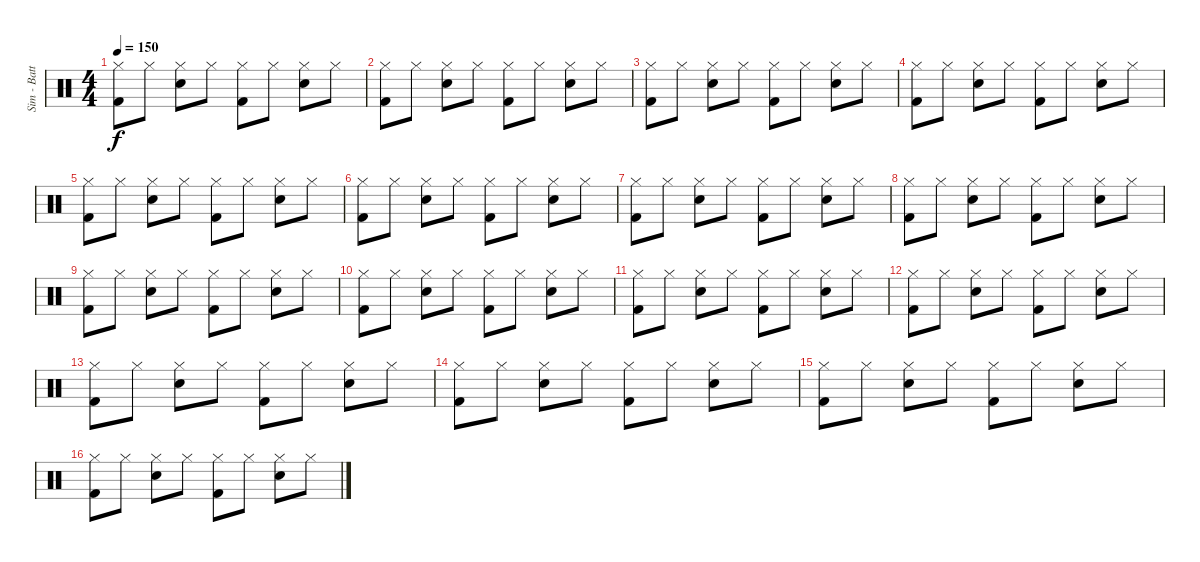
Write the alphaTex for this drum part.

\track ("Sim - Batterie-" "Sim - Batt") {instrument percussion}
\staff {score}
\articulation defaults
\ts (4 4)
\tempo 150
\clef neutral
\ks c
("Hi-Hat (closed)" "Kick (hit) 2").8{dy f} "Hi-Hat (closed)".8 ("Hi-Hat (closed)" "Snare (hit) 2").8 "Hi-Hat (closed)".8 ("Hi-Hat (closed)" "Kick (hit) 2").8 "Hi-Hat (closed)".8 ("Hi-Hat (closed)" "Snare (hit) 2").8 "Hi-Hat (closed)".8 |
("Hi-Hat (closed)" "Kick (hit) 2").8 "Hi-Hat (closed)".8 ("Hi-Hat (closed)" "Snare (hit) 2").8 "Hi-Hat (closed)".8 ("Hi-Hat (closed)" "Kick (hit) 2").8 "Hi-Hat (closed)".8 ("Hi-Hat (closed)" "Snare (hit) 2").8 "Hi-Hat (closed)".8 |
("Hi-Hat (closed)" "Kick (hit) 2").8 "Hi-Hat (closed)".8 ("Hi-Hat (closed)" "Snare (hit) 2").8 "Hi-Hat (closed)".8 ("Hi-Hat (closed)" "Kick (hit) 2").8 "Hi-Hat (closed)".8 ("Hi-Hat (closed)" "Snare (hit) 2").8 "Hi-Hat (closed)".8 |
("Hi-Hat (closed)" "Kick (hit) 2").8 "Hi-Hat (closed)".8 ("Hi-Hat (closed)" "Snare (hit) 2").8 "Hi-Hat (closed)".8 ("Hi-Hat (closed)" "Kick (hit) 2").8 "Hi-Hat (closed)".8 ("Hi-Hat (closed)" "Snare (hit) 2").8 "Hi-Hat (closed)".8 |
("Hi-Hat (closed)" "Kick (hit) 2").8 "Hi-Hat (closed)".8 ("Hi-Hat (closed)" "Snare (hit) 2").8 "Hi-Hat (closed)".8 ("Hi-Hat (closed)" "Kick (hit) 2").8 "Hi-Hat (closed)".8 ("Hi-Hat (closed)" "Snare (hit) 2").8 "Hi-Hat (closed)".8 |
("Hi-Hat (closed)" "Kick (hit) 2").8 "Hi-Hat (closed)".8 ("Hi-Hat (closed)" "Snare (hit) 2").8 "Hi-Hat (closed)".8 ("Hi-Hat (closed)" "Kick (hit) 2").8 "Hi-Hat (closed)".8 ("Hi-Hat (closed)" "Snare (hit) 2").8 "Hi-Hat (closed)".8 |
("Hi-Hat (closed)" "Kick (hit) 2").8 "Hi-Hat (closed)".8 ("Hi-Hat (closed)" "Snare (hit) 2").8 "Hi-Hat (closed)".8 ("Hi-Hat (closed)" "Kick (hit) 2").8 "Hi-Hat (closed)".8 ("Hi-Hat (closed)" "Snare (hit) 2").8 "Hi-Hat (closed)".8 |
("Hi-Hat (closed)" "Kick (hit) 2").8 "Hi-Hat (closed)".8 ("Hi-Hat (closed)" "Snare (hit) 2").8 "Hi-Hat (closed)".8 ("Hi-Hat (closed)" "Kick (hit) 2").8 "Hi-Hat (closed)".8 ("Hi-Hat (closed)" "Snare (hit) 2").8 "Hi-Hat (closed)".8 |
("Hi-Hat (closed)" "Kick (hit) 2").8 "Hi-Hat (closed)".8 ("Hi-Hat (closed)" "Snare (hit) 2").8 "Hi-Hat (closed)".8 ("Hi-Hat (closed)" "Kick (hit) 2").8 "Hi-Hat (closed)".8 ("Hi-Hat (closed)" "Snare (hit) 2").8 "Hi-Hat (closed)".8 |
("Hi-Hat (closed)" "Kick (hit) 2").8 "Hi-Hat (closed)".8 ("Hi-Hat (closed)" "Snare (hit) 2").8 "Hi-Hat (closed)".8 ("Hi-Hat (closed)" "Kick (hit) 2").8 "Hi-Hat (closed)".8 ("Hi-Hat (closed)" "Snare (hit) 2").8 "Hi-Hat (closed)".8 |
("Hi-Hat (closed)" "Kick (hit) 2").8 "Hi-Hat (closed)".8 ("Hi-Hat (closed)" "Snare (hit) 2").8 "Hi-Hat (closed)".8 ("Hi-Hat (closed)" "Kick (hit) 2").8 "Hi-Hat (closed)".8 ("Hi-Hat (closed)" "Snare (hit) 2").8 "Hi-Hat (closed)".8 |
("Hi-Hat (closed)" "Kick (hit) 2").8 "Hi-Hat (closed)".8 ("Hi-Hat (closed)" "Snare (hit) 2").8 "Hi-Hat (closed)".8 ("Hi-Hat (closed)" "Kick (hit) 2").8 "Hi-Hat (closed)".8 ("Hi-Hat (closed)" "Snare (hit) 2").8 "Hi-Hat (closed)".8 |
("Hi-Hat (closed)" "Kick (hit) 2").8 "Hi-Hat (closed)".8 ("Hi-Hat (closed)" "Snare (hit) 2").8 "Hi-Hat (closed)".8 ("Hi-Hat (closed)" "Kick (hit) 2").8 "Hi-Hat (closed)".8 ("Hi-Hat (closed)" "Snare (hit) 2").8 "Hi-Hat (closed)".8 |
("Hi-Hat (closed)" "Kick (hit) 2").8 "Hi-Hat (closed)".8 ("Hi-Hat (closed)" "Snare (hit) 2").8 "Hi-Hat (closed)".8 ("Hi-Hat (closed)" "Kick (hit) 2").8 "Hi-Hat (closed)".8 ("Hi-Hat (closed)" "Snare (hit) 2").8 "Hi-Hat (closed)".8 |
("Hi-Hat (closed)" "Kick (hit) 2").8 "Hi-Hat (closed)".8 ("Hi-Hat (closed)" "Snare (hit) 2").8 "Hi-Hat (closed)".8 ("Hi-Hat (closed)" "Kick (hit) 2").8 "Hi-Hat (closed)".8 ("Hi-Hat (closed)" "Snare (hit) 2").8 "Hi-Hat (closed)".8 |
("Hi-Hat (closed)" "Kick (hit) 2").8 "Hi-Hat (closed)".8 ("Hi-Hat (closed)" "Snare (hit) 2").8 "Hi-Hat (closed)".8 ("Hi-Hat (closed)" "Kick (hit) 2").8 "Hi-Hat (closed)".8 ("Hi-Hat (closed)" "Snare (hit) 2").8 "Hi-Hat (closed)".8
